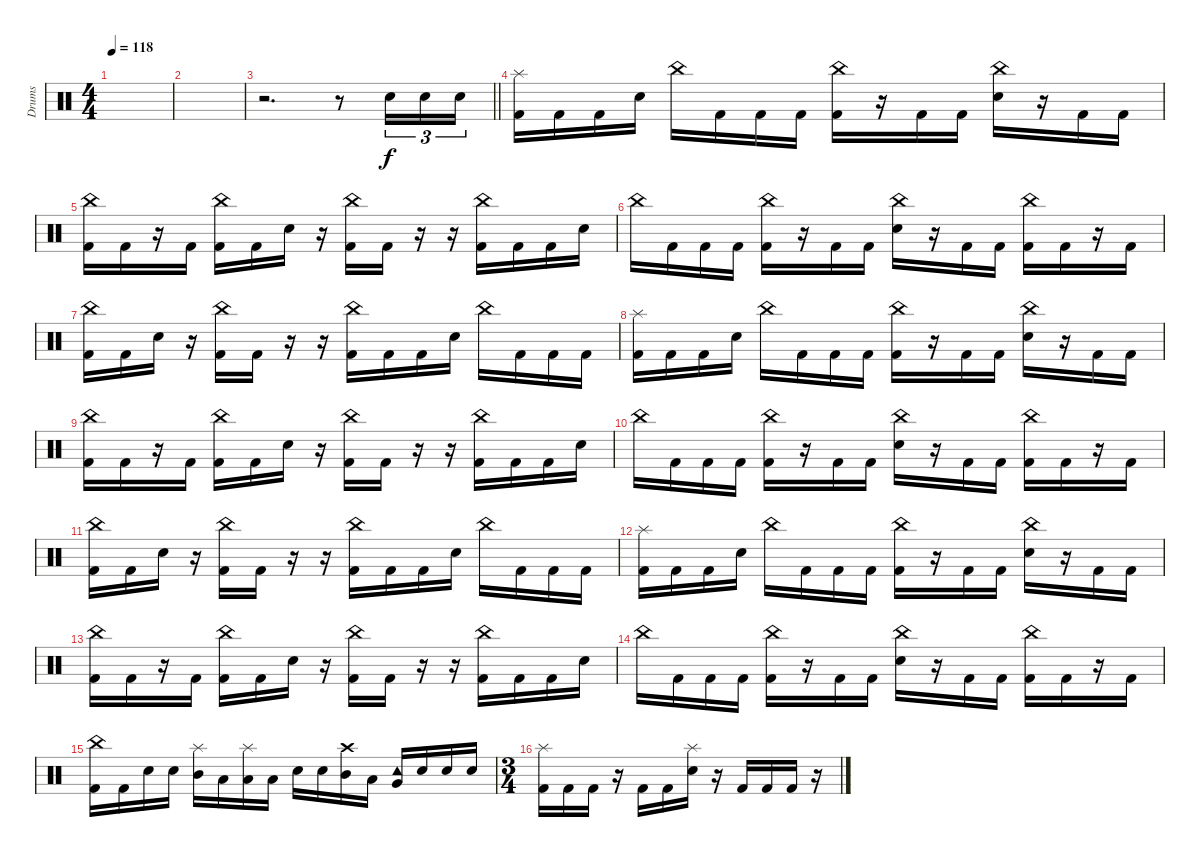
\track ("Drums" "Drums") {instrument percussion}
\staff {score}
\articulation defaults
\ts (4 4)
\tempo 118
\clef neutral
\ks c
|
|
\barLineRight lightlight
r.2{d} r.8 "Electric Snare (hit)".16{tu (3 2)} "Electric Snare (hit)".16{tu (3 2)} "Electric Snare (hit)".16{tu (3 2)} |
\section ("" "")
("Splash (hit)" "Kick (hit) 2").16 "Kick (hit) 2".16 "Kick (hit) 2".16 "Electric Snare (hit)".16 "China (hit)".16 "Kick (hit) 2".16 "Kick (hit) 2".16 "Kick (hit) 2".16 ("China (hit)" "Kick (hit) 2").16 r.16 "Kick (hit) 2".16 "Kick (hit) 2".16 ("China (hit)" "Electric Snare (hit)").16 r.16 "Kick (hit) 2".16 "Kick (hit) 2".16 |
("China (hit)" "Kick (hit) 2").16 "Kick (hit) 2".16 r.16 "Kick (hit) 2".16 ("China (hit)" "Kick (hit) 2").16 "Kick (hit) 2".16 "Electric Snare (hit)".16 r.16 ("China (hit)" "Kick (hit) 2").16 "Kick (hit) 2".16 r.16 r.16 ("China (hit)" "Kick (hit) 2").16 "Kick (hit) 2".16 "Kick (hit) 2".16 "Electric Snare (hit)".16 |
"China (hit)".16 "Kick (hit) 2".16 "Kick (hit) 2".16 "Kick (hit) 2".16 ("China (hit)" "Kick (hit) 2").16 r.16 "Kick (hit) 2".16 "Kick (hit) 2".16 ("China (hit)" "Electric Snare (hit)").16 r.16 "Kick (hit) 2".16 "Kick (hit) 2".16 ("China (hit)" "Kick (hit) 2").16 "Kick (hit) 2".16 r.16 "Kick (hit) 2".16 |
("China (hit)" "Kick (hit) 2").16 "Kick (hit) 2".16 "Electric Snare (hit)".16 r.16 ("China (hit)" "Kick (hit) 2").16 "Kick (hit) 2".16 r.16 r.16 ("China (hit)" "Kick (hit) 2").16 "Kick (hit) 2".16 "Kick (hit) 2".16 "Electric Snare (hit)".16 "China (hit)".16 "Kick (hit) 2".16 "Kick (hit) 2".16 "Kick (hit) 2".16 |
("Splash (hit)" "Kick (hit) 2").16 "Kick (hit) 2".16 "Kick (hit) 2".16 "Electric Snare (hit)".16 "China (hit)".16 "Kick (hit) 2".16 "Kick (hit) 2".16 "Kick (hit) 2".16 ("China (hit)" "Kick (hit) 2").16 r.16 "Kick (hit) 2".16 "Kick (hit) 2".16 ("China (hit)" "Electric Snare (hit)").16 r.16 "Kick (hit) 2".16 "Kick (hit) 2".16 |
("China (hit)" "Kick (hit) 2").16 "Kick (hit) 2".16 r.16 "Kick (hit) 2".16 ("China (hit)" "Kick (hit) 2").16 "Kick (hit) 2".16 "Electric Snare (hit)".16 r.16 ("China (hit)" "Kick (hit) 2").16 "Kick (hit) 2".16 r.16 r.16 ("China (hit)" "Kick (hit) 2").16 "Kick (hit) 2".16 "Kick (hit) 2".16 "Electric Snare (hit)".16 |
"China (hit)".16 "Kick (hit) 2".16 "Kick (hit) 2".16 "Kick (hit) 2".16 ("China (hit)" "Kick (hit) 2").16 r.16 "Kick (hit) 2".16 "Kick (hit) 2".16 ("China (hit)" "Electric Snare (hit)").16 r.16 "Kick (hit) 2".16 "Kick (hit) 2".16 ("China (hit)" "Kick (hit) 2").16 "Kick (hit) 2".16 r.16 "Kick (hit) 2".16 |
("China (hit)" "Kick (hit) 2").16 "Kick (hit) 2".16 "Electric Snare (hit)".16 r.16 ("China (hit)" "Kick (hit) 2").16 "Kick (hit) 2".16 r.16 r.16 ("China (hit)" "Kick (hit) 2").16 "Kick (hit) 2".16 "Kick (hit) 2".16 "Electric Snare (hit)".16 "China (hit)".16 "Kick (hit) 2".16 "Kick (hit) 2".16 "Kick (hit) 2".16 |
("Splash (hit)" "Kick (hit) 2").16 "Kick (hit) 2".16 "Kick (hit) 2".16 "Electric Snare (hit)".16 "China (hit)".16 "Kick (hit) 2".16 "Kick (hit) 2".16 "Kick (hit) 2".16 ("China (hit)" "Kick (hit) 2").16 r.16 "Kick (hit) 2".16 "Kick (hit) 2".16 ("China (hit)" "Electric Snare (hit)").16 r.16 "Kick (hit) 2".16 "Kick (hit) 2".16 |
("China (hit)" "Kick (hit) 2").16 "Kick (hit) 2".16 r.16 "Kick (hit) 2".16 ("China (hit)" "Kick (hit) 2").16 "Kick (hit) 2".16 "Electric Snare (hit)".16 r.16 ("China (hit)" "Kick (hit) 2").16 "Kick (hit) 2".16 r.16 r.16 ("China (hit)" "Kick (hit) 2").16 "Kick (hit) 2".16 "Kick (hit) 2".16 "Electric Snare (hit)".16 |
"China (hit)".16 "Kick (hit) 2".16 "Kick (hit) 2".16 "Kick (hit) 2".16 ("China (hit)" "Kick (hit) 2").16 r.16 "Kick (hit) 2".16 "Kick (hit) 2".16 ("China (hit)" "Electric Snare (hit)").16 r.16 "Kick (hit) 2".16 "Kick (hit) 2".16 ("China (hit)" "Kick (hit) 2").16 "Kick (hit) 2".16 r.16 "Kick (hit) 2".16 |
("China (hit)" "Kick (hit) 2").16 "Kick (hit) 2".16 "Electric Snare (hit)".16 "Electric Snare (hit)".16 ("Splash (hit)" "Mid Tom (hit)").16 "Low Floor Tom (hit)".16 ("Splash (hit)" "Low Tom (hit)").16 "Low Floor Tom (hit)".16 "Electric Snare (hit)".16 "Electric Snare (hit)".16 ("Crash high (hit)" "Mid Tom (hit)").16 "Low Tom (hit)".16 ("Tambourine (hit)" "Very Low Tom (hit)").16 "Electric Snare (hit)".16 "Electric Snare (hit)".16 "Electric Snare (hit)".16 |
\ts (3 4)
\section ("" "")
("Splash (hit)" "Kick (hit) 2").16 "Kick (hit) 2".16 "Kick (hit) 2".16 r.16 "Kick (hit) 2".16 "Kick (hit) 2".16 ("Splash (hit)" "Electric Snare (hit)").16 r.16 "Kick (hit) 2".16 "Kick (hit) 2".16 "Kick (hit) 2".16 r.16
